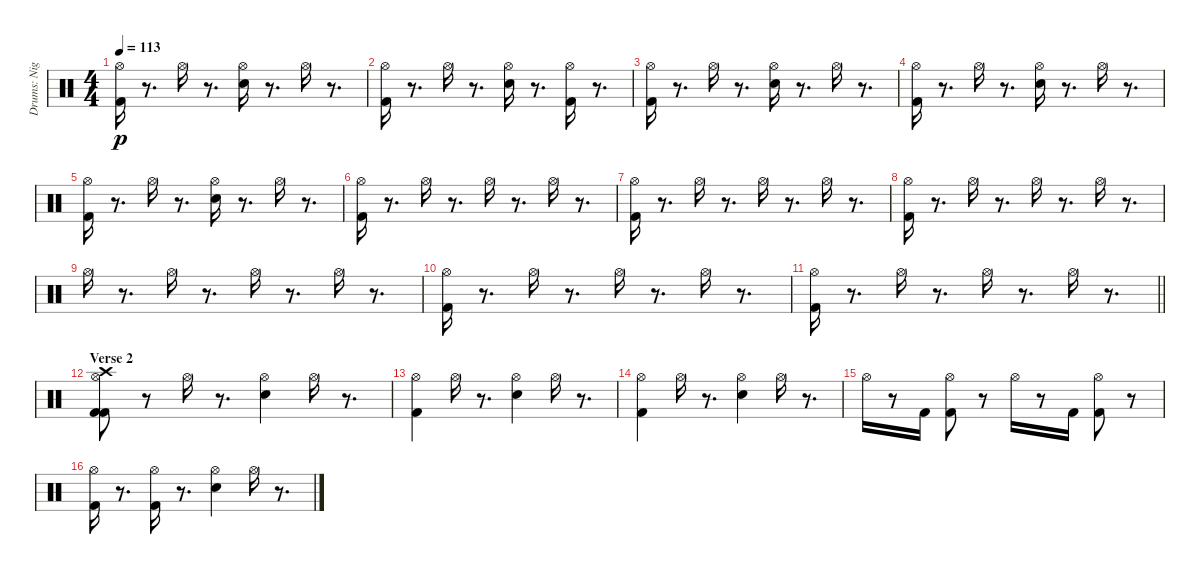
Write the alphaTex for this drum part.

\track ("Drums: Nigel Olsson" "Drums: Nig") {instrument percussion}
\staff {score}
\articulation defaults
\ts (4 4)
\tempo 113
\clef neutral
\ks c
("Kick (hit) 2" "Hi-Hat (open)").16{dy p} r.8{d} "Hi-Hat (open)".16 r.8{d} ("Snare (hit) 2" "Hi-Hat (open)").16 r.8{d} "Hi-Hat (open)".16 r.8{d} |
("Kick (hit) 2" "Hi-Hat (open)").16 r.8{d} "Hi-Hat (open)".16 r.8{d} ("Snare (hit) 2" "Hi-Hat (open)").16 r.8{d} ("Kick (hit) 2" "Hi-Hat (open)").16 r.8{d} |
("Kick (hit) 2" "Hi-Hat (open)").16 r.8{d} "Hi-Hat (open)".16 r.8{d} ("Snare (hit) 2" "Hi-Hat (open)").16 r.8{d} "Hi-Hat (open)".16 r.8{d} |
("Kick (hit) 2" "Hi-Hat (open)").16 r.8{d} "Hi-Hat (open)".16 r.8{d} ("Snare (hit) 2" "Hi-Hat (open)").16 r.8{d} "Hi-Hat (open)".16 r.8{d} |
("Kick (hit) 2" "Hi-Hat (open)").16 r.8{d} "Hi-Hat (open)".16 r.8{d} ("Snare (hit) 2" "Hi-Hat (open)").16 r.8{d} "Hi-Hat (open)".16 r.8{d} |
("Hi-Hat (open)" "Kick (hit) 2").16 r.8{d} "Hi-Hat (open)".16 r.8{d} "Hi-Hat (open)".16 r.8{d} "Hi-Hat (open)".16 r.8{d} |
("Hi-Hat (open)" "Kick (hit) 2").16 r.8{d} "Hi-Hat (open)".16 r.8{d} "Hi-Hat (open)".16 r.8{d} "Hi-Hat (open)".16 r.8{d} |
("Hi-Hat (open)" "Kick (hit) 2").16 r.8{d} "Hi-Hat (open)".16 r.8{d} "Hi-Hat (open)".16 r.8{d} "Hi-Hat (open)".16 r.8{d} |
"Hi-Hat (open)".16 r.8{d} "Hi-Hat (open)".16 r.8{d} "Hi-Hat (open)".16 r.8{d} "Hi-Hat (open)".16 r.8{d} |
("Hi-Hat (open)" "Kick (hit) 2").16 r.8{d} "Hi-Hat (open)".16 r.8{d} "Hi-Hat (open)".16 r.8{d} "Hi-Hat (open)".16 r.8{d} |
\barLineRight lightlight
("Hi-Hat (open)" "Kick (hit) 2").16 r.8{d} "Hi-Hat (open)".16 r.8{d} "Hi-Hat (open)".16 r.8{d} "Hi-Hat (open)".16 r.8{d} |
\section ("" "Verse 2")
("Kick (hit) 2" "Hi-Hat (open)" "Crash high (hit)" "Kick (hit) 2").8 r.8 "Hi-Hat (open)".16 r.8{d} ("Hi-Hat (open)" "Snare (hit) 2").4 "Hi-Hat (open)".16 r.8{d} |
("Hi-Hat (open)" "Kick (hit) 2").4 "Hi-Hat (open)".16 r.8{d} ("Hi-Hat (open)" "Snare (hit) 2").4 "Hi-Hat (open)".16 r.8{d} |
("Kick (hit) 2" "Hi-Hat (open)").4 "Hi-Hat (open)".16 r.8{d} ("Snare (hit) 2" "Hi-Hat (open)").4 "Hi-Hat (open)".16 r.8{d} |
"Hi-Hat (open)".16 r.8 "Kick (hit) 2".16 ("Hi-Hat (open)" "Kick (hit) 2").8 r.8 "Hi-Hat (open)".16 r.8 "Kick (hit) 2".16 ("Kick (hit) 2" "Hi-Hat (open)").8 r.8 |
("Kick (hit) 2" "Hi-Hat (open)").16 r.8{d} ("Kick (hit) 2" "Hi-Hat (open)").16 r.8{d} ("Snare (hit) 2" "Hi-Hat (open)").4 "Hi-Hat (open)".16 r.8{d}
